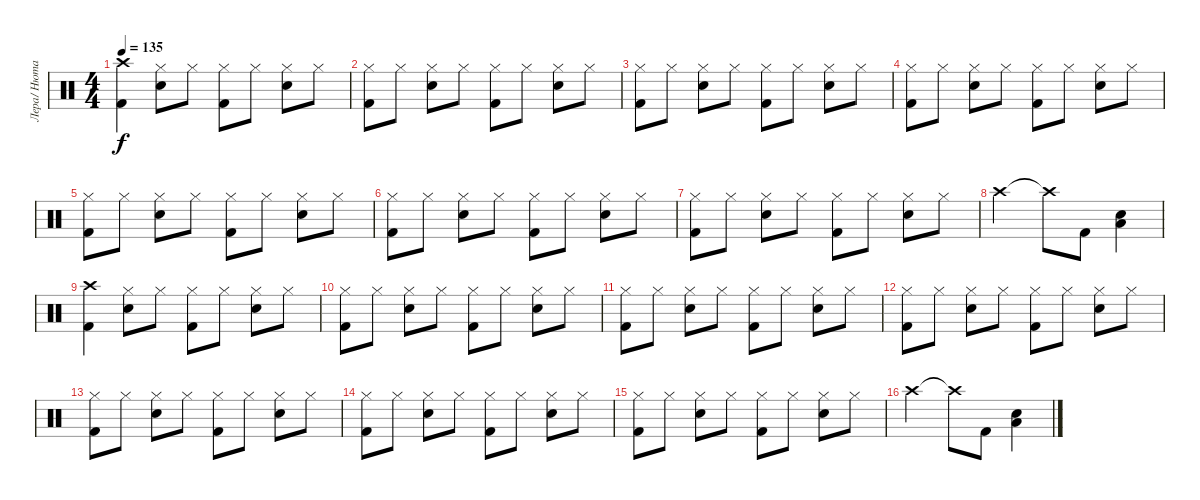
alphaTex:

\track ("Лера/ Нюта" "Лера/ Нюта") {instrument percussion}
\staff {score}
\articulation defaults
\ts (4 4)
\tempo 135
\clef neutral
\ks c
("Crash high (hit)" "Kick (hit) 2").4{dy f} ("Hi-Hat (closed)" "Electric Snare (hit)").8 "Hi-Hat (closed)".8 ("Hi-Hat (closed)" "Kick (hit) 2").8 "Hi-Hat (closed)".8 ("Hi-Hat (closed)" "Electric Snare (hit)").8 "Hi-Hat (closed)".8 |
("Hi-Hat (closed)" "Kick (hit) 2").8 "Hi-Hat (closed)".8 ("Hi-Hat (closed)" "Electric Snare (hit)").8 "Hi-Hat (closed)".8 ("Hi-Hat (closed)" "Kick (hit) 2").8 "Hi-Hat (closed)".8 ("Hi-Hat (closed)" "Electric Snare (hit)").8 "Hi-Hat (closed)".8 |
("Hi-Hat (closed)" "Kick (hit) 2").8 "Hi-Hat (closed)".8 ("Hi-Hat (closed)" "Electric Snare (hit)").8 "Hi-Hat (closed)".8 ("Hi-Hat (closed)" "Kick (hit) 2").8 "Hi-Hat (closed)".8 ("Hi-Hat (closed)" "Electric Snare (hit)").8 "Hi-Hat (closed)".8 |
("Hi-Hat (closed)" "Kick (hit) 2").8 "Hi-Hat (closed)".8 ("Hi-Hat (closed)" "Electric Snare (hit)").8 "Hi-Hat (closed)".8 ("Hi-Hat (closed)" "Kick (hit) 2").8 "Hi-Hat (closed)".8 ("Hi-Hat (closed)" "Electric Snare (hit)").8 "Hi-Hat (closed)".8 |
("Hi-Hat (closed)" "Kick (hit) 2").8 "Hi-Hat (closed)".8 ("Hi-Hat (closed)" "Electric Snare (hit)").8 "Hi-Hat (closed)".8 ("Hi-Hat (closed)" "Kick (hit) 2").8 "Hi-Hat (closed)".8 ("Hi-Hat (closed)" "Electric Snare (hit)").8 "Hi-Hat (closed)".8 |
("Hi-Hat (closed)" "Kick (hit) 2").8 "Hi-Hat (closed)".8 ("Hi-Hat (closed)" "Electric Snare (hit)").8 "Hi-Hat (closed)".8 ("Hi-Hat (closed)" "Kick (hit) 2").8 "Hi-Hat (closed)".8 ("Hi-Hat (closed)" "Electric Snare (hit)").8 "Hi-Hat (closed)".8 |
("Hi-Hat (closed)" "Kick (hit) 2").8 "Hi-Hat (closed)".8 ("Hi-Hat (closed)" "Electric Snare (hit)").8 "Hi-Hat (closed)".8 ("Hi-Hat (closed)" "Kick (hit) 2").8 "Hi-Hat (closed)".8 ("Hi-Hat (closed)" "Electric Snare (hit)").8 "Hi-Hat (closed)".8 |
"Crash high (hit)".2 "Crash high (hit)"{t}.8 "Kick (hit) 2".8 ("Electric Snare (hit)" "Low Tom (hit)").4 |
("Crash high (hit)" "Kick (hit) 2").4 ("Hi-Hat (closed)" "Electric Snare (hit)").8 "Hi-Hat (closed)".8 ("Hi-Hat (closed)" "Kick (hit) 2").8 "Hi-Hat (closed)".8 ("Hi-Hat (closed)" "Electric Snare (hit)").8 "Hi-Hat (closed)".8 |
("Hi-Hat (closed)" "Kick (hit) 2").8 "Hi-Hat (closed)".8 ("Hi-Hat (closed)" "Electric Snare (hit)").8 "Hi-Hat (closed)".8 ("Hi-Hat (closed)" "Kick (hit) 2").8 "Hi-Hat (closed)".8 ("Hi-Hat (closed)" "Electric Snare (hit)").8 "Hi-Hat (closed)".8 |
("Hi-Hat (closed)" "Kick (hit) 2").8 "Hi-Hat (closed)".8 ("Hi-Hat (closed)" "Electric Snare (hit)").8 "Hi-Hat (closed)".8 ("Hi-Hat (closed)" "Kick (hit) 2").8 "Hi-Hat (closed)".8 ("Hi-Hat (closed)" "Electric Snare (hit)").8 "Hi-Hat (closed)".8 |
("Hi-Hat (closed)" "Kick (hit) 2").8 "Hi-Hat (closed)".8 ("Hi-Hat (closed)" "Electric Snare (hit)").8 "Hi-Hat (closed)".8 ("Hi-Hat (closed)" "Kick (hit) 2").8 "Hi-Hat (closed)".8 ("Hi-Hat (closed)" "Electric Snare (hit)").8 "Hi-Hat (closed)".8 |
("Hi-Hat (closed)" "Kick (hit) 2").8 "Hi-Hat (closed)".8 ("Hi-Hat (closed)" "Electric Snare (hit)").8 "Hi-Hat (closed)".8 ("Hi-Hat (closed)" "Kick (hit) 2").8 "Hi-Hat (closed)".8 ("Hi-Hat (closed)" "Electric Snare (hit)").8 "Hi-Hat (closed)".8 |
("Hi-Hat (closed)" "Kick (hit) 2").8 "Hi-Hat (closed)".8 ("Hi-Hat (closed)" "Electric Snare (hit)").8 "Hi-Hat (closed)".8 ("Hi-Hat (closed)" "Kick (hit) 2").8 "Hi-Hat (closed)".8 ("Hi-Hat (closed)" "Electric Snare (hit)").8 "Hi-Hat (closed)".8 |
("Hi-Hat (closed)" "Kick (hit) 2").8 "Hi-Hat (closed)".8 ("Hi-Hat (closed)" "Electric Snare (hit)").8 "Hi-Hat (closed)".8 ("Hi-Hat (closed)" "Kick (hit) 2").8 "Hi-Hat (closed)".8 ("Hi-Hat (closed)" "Electric Snare (hit)").8 "Hi-Hat (closed)".8 |
"Crash high (hit)".2 "Crash high (hit)"{t}.8 "Kick (hit) 2".8 ("Electric Snare (hit)" "Low Tom (hit)").4
